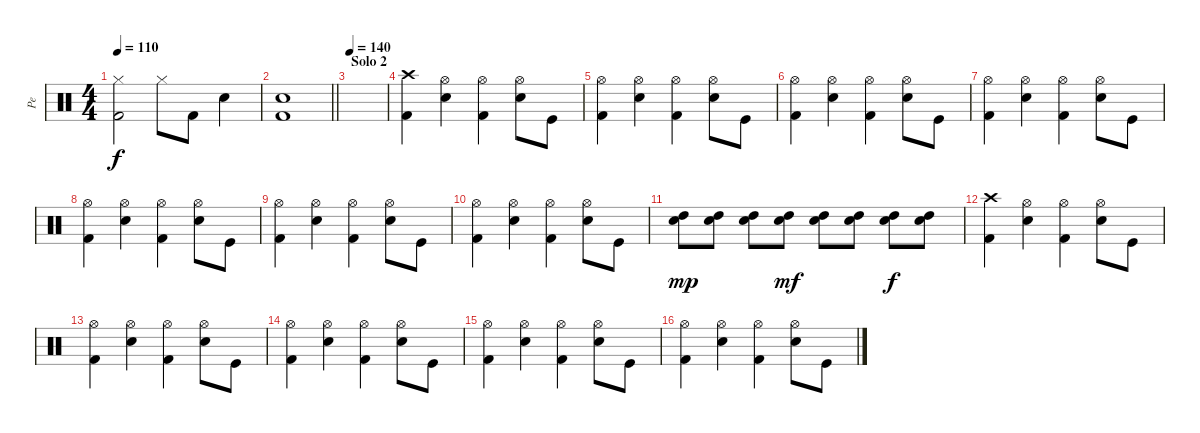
\track ("Pe" "Pe") {instrument percussion}
\staff {score}
\articulation defaults
\ts (4 4)
\tempo 110
\clef neutral
\ks c
("Kick (hit) 2" "Hi-Hat (closed)").2{dy f} "Hi-Hat (closed)".8 "Kick (hit) 2".8 "Electric Snare (hit)".4 |
\barLineRight lightlight
("Kick (hit) 2" "Electric Snare (hit)").1 |
\section ("" "Solo 2")
\tempo 140
|
("Kick (hit) 2" "Crash high (hit)").4 ("Electric Snare (hit)" "Hi-Hat (open)").4 ("Kick (hit) 2" "Hi-Hat (open)").4 ("Electric Snare (hit)" "Hi-Hat (open)").8 "Kick (hit)".8 |
("Kick (hit) 2" "Hi-Hat (open)").4 ("Electric Snare (hit)" "Hi-Hat (open)").4 ("Kick (hit) 2" "Hi-Hat (open)").4 ("Electric Snare (hit)" "Hi-Hat (open)").8 "Kick (hit)".8 |
("Kick (hit) 2" "Hi-Hat (open)").4 ("Electric Snare (hit)" "Hi-Hat (open)").4 ("Kick (hit) 2" "Hi-Hat (open)").4 ("Electric Snare (hit)" "Hi-Hat (open)").8 "Kick (hit)".8 |
("Kick (hit) 2" "Hi-Hat (open)").4 ("Electric Snare (hit)" "Hi-Hat (open)").4 ("Kick (hit) 2" "Hi-Hat (open)").4 ("Electric Snare (hit)" "Hi-Hat (open)").8 "Kick (hit)".8 |
("Kick (hit) 2" "Hi-Hat (open)").4 ("Electric Snare (hit)" "Hi-Hat (open)").4 ("Kick (hit) 2" "Hi-Hat (open)").4 ("Electric Snare (hit)" "Hi-Hat (open)").8 "Kick (hit)".8 |
("Kick (hit) 2" "Hi-Hat (open)").4 ("Electric Snare (hit)" "Hi-Hat (open)").4 ("Kick (hit) 2" "Hi-Hat (open)").4 ("Electric Snare (hit)" "Hi-Hat (open)").8 "Kick (hit)".8 |
("Kick (hit) 2" "Hi-Hat (open)").4 ("Electric Snare (hit)" "Hi-Hat (open)").4 ("Kick (hit) 2" "Hi-Hat (open)").4 ("Electric Snare (hit)" "Hi-Hat (open)").8 "Kick (hit)".8 |
("Electric Snare (hit)" "High Tom (hit)").8{dy mp} ("Electric Snare (hit)" "High Tom (hit)").8 ("Electric Snare (hit)" "High Tom (hit)").8 ("Electric Snare (hit)" "High Tom (hit)").8{dy mf} ("Electric Snare (hit)" "High Tom (hit)").8 ("Electric Snare (hit)" "High Tom (hit)").8 ("Electric Snare (hit)" "High Tom (hit)").8{dy f} ("Electric Snare (hit)" "High Tom (hit)").8 |
("Kick (hit) 2" "Crash high (hit)").4 ("Electric Snare (hit)" "Hi-Hat (open)").4 ("Kick (hit) 2" "Hi-Hat (open)").4 ("Electric Snare (hit)" "Hi-Hat (open)").8 "Kick (hit)".8 |
("Kick (hit) 2" "Hi-Hat (open)").4 ("Electric Snare (hit)" "Hi-Hat (open)").4 ("Kick (hit) 2" "Hi-Hat (open)").4 ("Electric Snare (hit)" "Hi-Hat (open)").8 "Kick (hit)".8 |
("Kick (hit) 2" "Hi-Hat (open)").4 ("Electric Snare (hit)" "Hi-Hat (open)").4 ("Kick (hit) 2" "Hi-Hat (open)").4 ("Electric Snare (hit)" "Hi-Hat (open)").8 "Kick (hit)".8 |
("Kick (hit) 2" "Hi-Hat (open)").4 ("Electric Snare (hit)" "Hi-Hat (open)").4 ("Kick (hit) 2" "Hi-Hat (open)").4 ("Electric Snare (hit)" "Hi-Hat (open)").8 "Kick (hit)".8 |
("Kick (hit) 2" "Hi-Hat (open)").4 ("Electric Snare (hit)" "Hi-Hat (open)").4 ("Kick (hit) 2" "Hi-Hat (open)").4 ("Electric Snare (hit)" "Hi-Hat (open)").8 "Kick (hit)".8
